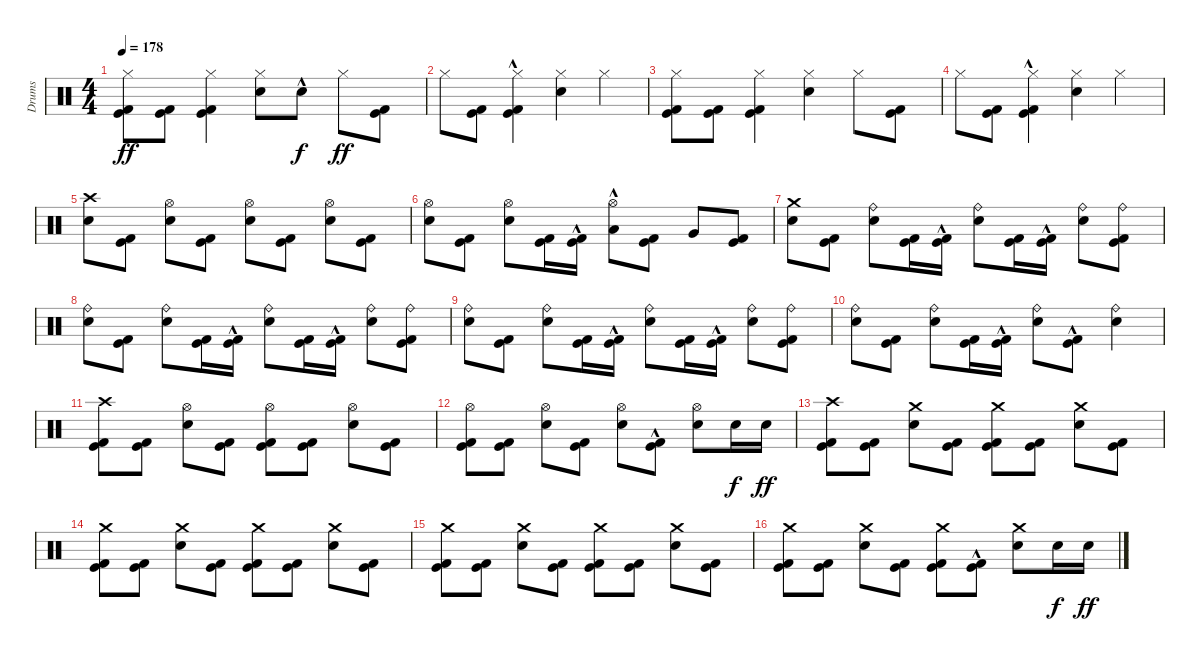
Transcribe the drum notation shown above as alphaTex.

\track ("Drums" "Drums") {instrument percussion}
\staff {score}
\articulation defaults
\ts (4 4)
\tempo 178
\clef neutral
\ks c
("Kick (hit)" "Kick (hit) 2" "Hi-Hat (closed)").8{dy ff} ("Kick (hit)" "Kick (hit) 2").8 ("Kick (hit)" "Kick (hit) 2" "Hi-Hat (closed)").4 ("Electric Snare (hit)" "Hi-Hat (closed)").8 "Electric Snare (hit)"{hac}.8{dy f} "Hi-Hat (closed)".8{dy ff} ("Kick (hit)" "Kick (hit) 2").8 |
"Hi-Hat (closed)".8 ("Kick (hit)" "Kick (hit) 2").8 ("Kick (hit)"{hac} "Kick (hit) 2"{hac} "Hi-Hat (closed)").4 ("Electric Snare (hit)" "Hi-Hat (closed)").4 "Hi-Hat (closed)".4 |
("Kick (hit)" "Kick (hit) 2" "Hi-Hat (closed)").8 ("Kick (hit)" "Kick (hit) 2").8 ("Kick (hit)" "Kick (hit) 2" "Hi-Hat (closed)").4 ("Electric Snare (hit)" "Hi-Hat (closed)").4 "Hi-Hat (closed)".8 ("Kick (hit)" "Kick (hit) 2").8 |
"Hi-Hat (closed)".8 ("Kick (hit)" "Kick (hit) 2").8 ("Kick (hit)"{hac} "Kick (hit) 2"{hac} "Hi-Hat (closed)").4 ("Electric Snare (hit)" "Hi-Hat (closed)").4 "Hi-Hat (closed)".4 |
("Electric Snare (hit)" "Crash high (hit)").8 ("Kick (hit)" "Kick (hit) 2").8 ("Electric Snare (hit)" "Hi-Hat (open)").8 ("Kick (hit)" "Kick (hit) 2").8 ("Electric Snare (hit)" "Hi-Hat (open)").8 ("Kick (hit)" "Kick (hit) 2").8 ("Electric Snare (hit)" "Hi-Hat (open)").8 ("Kick (hit)" "Kick (hit) 2").8 |
("Electric Snare (hit)" "Hi-Hat (open)").8 ("Kick (hit)" "Kick (hit) 2").8 ("Electric Snare (hit)" "Hi-Hat (open)").8 ("Kick (hit)" "Kick (hit) 2").16 ("Kick (hit)"{hac} "Kick (hit) 2"{hac}).16 ("Low Tom (hit)" "Hi-Hat (open)"{hac}).8 ("Kick (hit)" "Kick (hit) 2").8 "Very Low Tom (hit)".8 ("Kick (hit)" "Kick (hit) 2").8 |
("Electric Snare (hit)" "Crash medium (hit)").8 ("Kick (hit)" "Kick (hit) 2").8 ("Electric Snare (hit)" "Ride (bell)").8 ("Kick (hit)" "Kick (hit) 2").16 ("Kick (hit)"{hac} "Kick (hit) 2"{hac}).16 ("Electric Snare (hit)" "Ride (bell)").8 ("Kick (hit)" "Kick (hit) 2").16 ("Kick (hit)"{hac} "Kick (hit) 2"{hac}).16 ("Electric Snare (hit)" "Ride (bell)").8 ("Kick (hit)" "Kick (hit) 2" "Ride (bell)").8 |
("Electric Snare (hit)" "Ride (bell)").8 ("Kick (hit)" "Kick (hit) 2").8 ("Electric Snare (hit)" "Ride (bell)").8 ("Kick (hit)" "Kick (hit) 2").16 ("Kick (hit)"{hac} "Kick (hit) 2"{hac}).16 ("Electric Snare (hit)" "Ride (bell)").8 ("Kick (hit)" "Kick (hit) 2").16 ("Kick (hit)"{hac} "Kick (hit) 2"{hac}).16 ("Electric Snare (hit)" "Ride (bell)").8 ("Kick (hit)" "Kick (hit) 2" "Ride (bell)").8 |
("Electric Snare (hit)" "Ride (bell)").8 ("Kick (hit)" "Kick (hit) 2").8 ("Electric Snare (hit)" "Ride (bell)").8 ("Kick (hit)" "Kick (hit) 2").16 ("Kick (hit)"{hac} "Kick (hit) 2"{hac}).16 ("Electric Snare (hit)" "Ride (bell)").8 ("Kick (hit)" "Kick (hit) 2").16 ("Kick (hit)"{hac} "Kick (hit) 2"{hac}).16 ("Electric Snare (hit)" "Ride (bell)").8 ("Kick (hit)" "Kick (hit) 2" "Ride (bell)").8 |
("Electric Snare (hit)" "Ride (bell)").8 ("Kick (hit)" "Kick (hit) 2").8 ("Electric Snare (hit)" "Ride (bell)").8 ("Kick (hit)" "Kick (hit) 2").16 ("Kick (hit)"{hac} "Kick (hit) 2"{hac}).16 ("Electric Snare (hit)" "Ride (bell)").8 ("Kick (hit)"{hac} "Kick (hit) 2"{hac}).8 ("Electric Snare (hit)" "Ride (bell)").4 |
("Kick (hit)" "Kick (hit) 2" "Crash high (hit)").8 ("Kick (hit)" "Kick (hit) 2").8 ("Electric Snare (hit)" "Hi-Hat (open)").8 ("Kick (hit)" "Kick (hit) 2").8 ("Kick (hit)" "Kick (hit) 2" "Hi-Hat (open)").8 ("Kick (hit)" "Kick (hit) 2").8 ("Electric Snare (hit)" "Hi-Hat (open)").8 ("Kick (hit)" "Kick (hit) 2").8 |
("Kick (hit)" "Kick (hit) 2" "Hi-Hat (open)").8 ("Kick (hit)" "Kick (hit) 2").8 ("Electric Snare (hit)" "Hi-Hat (open)").8 ("Kick (hit)" "Kick (hit) 2").8 ("Electric Snare (hit)" "Hi-Hat (open)").8 ("Kick (hit)"{hac} "Kick (hit) 2"{hac}).8 ("Electric Snare (hit)" "Hi-Hat (open)").8 "Electric Snare (hit)".16{dy f} "Electric Snare (hit)".16{dy ff} |
("Kick (hit)" "Kick (hit) 2" "Crash high (hit)").8 ("Kick (hit)" "Kick (hit) 2").8 ("Electric Snare (hit)" "Crash medium (hit)").8 ("Kick (hit)" "Kick (hit) 2").8 ("Kick (hit)" "Kick (hit) 2" "Crash medium (hit)").8 ("Kick (hit)" "Kick (hit) 2").8 ("Electric Snare (hit)" "Crash medium (hit)").8 ("Kick (hit)" "Kick (hit) 2").8 |
("Kick (hit)" "Kick (hit) 2" "Crash medium (hit)").8 ("Kick (hit)" "Kick (hit) 2").8 ("Electric Snare (hit)" "Crash medium (hit)").8 ("Kick (hit)" "Kick (hit) 2").8 ("Kick (hit)" "Kick (hit) 2" "Crash medium (hit)").8 ("Kick (hit)" "Kick (hit) 2").8 ("Electric Snare (hit)" "Crash medium (hit)").8 ("Kick (hit)" "Kick (hit) 2").8 |
("Kick (hit)" "Kick (hit) 2" "Crash medium (hit)").8 ("Kick (hit)" "Kick (hit) 2").8 ("Electric Snare (hit)" "Crash medium (hit)").8 ("Kick (hit)" "Kick (hit) 2").8 ("Kick (hit)" "Kick (hit) 2" "Crash medium (hit)").8 ("Kick (hit)" "Kick (hit) 2").8 ("Electric Snare (hit)" "Crash medium (hit)").8 ("Kick (hit)" "Kick (hit) 2").8 |
("Kick (hit)" "Kick (hit) 2" "Crash medium (hit)").8 ("Kick (hit)" "Kick (hit) 2").8 ("Electric Snare (hit)" "Crash medium (hit)").8 ("Kick (hit)" "Kick (hit) 2").8 ("Kick (hit)" "Kick (hit) 2" "Crash medium (hit)").8 ("Kick (hit)"{hac} "Kick (hit) 2"{hac}).8 ("Electric Snare (hit)" "Crash medium (hit)").8 "Electric Snare (hit)".16{dy f} "Electric Snare (hit)".16{dy ff}
